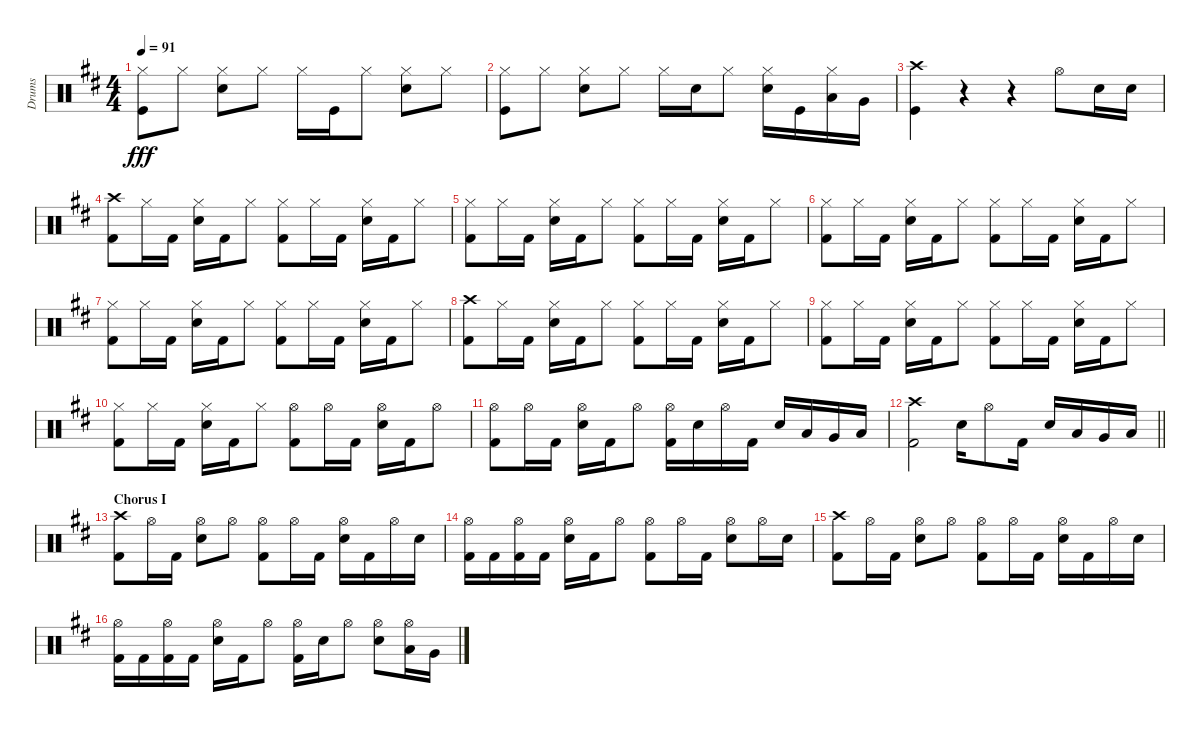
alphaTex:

\track ("Drums" "Drums") {instrument percussion}
\staff {score}
\articulation defaults
\ts (4 4)
\tempo 91
\clef neutral
\ks d
("Hi-Hat (closed)" "Kick (hit)").8{dy fff} "Hi-Hat (closed)".8 ("Hi-Hat (closed)" "Snare (hit) 2").8 "Hi-Hat (closed)".8 "Hi-Hat (closed)".16 "Kick (hit)".16 "Hi-Hat (closed)".8 ("Hi-Hat (closed)" "Snare (hit) 2").8 "Hi-Hat (closed)".8 |
("Hi-Hat (closed)" "Kick (hit)").8 "Hi-Hat (closed)".8 ("Hi-Hat (closed)" "Snare (hit) 2").8 "Hi-Hat (closed)".8 "Hi-Hat (closed)".16 "Snare (hit) 2".16 "Hi-Hat (closed)".8 ("Hi-Hat (closed)" "Snare (hit) 2").16 "Kick (hit)".16 ("Hi-Hat (closed)" "Low Tom (hit)").16 "Very Low Tom (hit)".16 |
("Crash high (hit)" "Kick (hit)").4 r.4 r.4 "Hi-Hat (open)".8 "Snare (hit) 2".16 "Snare (hit) 2".16 |
("Crash high (hit)" "Kick (hit) 2").8 "Hi-Hat (closed)".16 "Kick (hit) 2".16 ("Hi-Hat (closed)" "Snare (hit) 2").16 "Kick (hit) 2".16 "Hi-Hat (closed)".8 ("Hi-Hat (closed)" "Kick (hit) 2").8 "Hi-Hat (closed)".16 "Kick (hit) 2".16 ("Hi-Hat (closed)" "Snare (hit) 2").16 "Kick (hit) 2".16 "Hi-Hat (closed)".8 |
("Hi-Hat (closed)" "Kick (hit) 2").8 "Hi-Hat (closed)".16 "Kick (hit) 2".16 ("Hi-Hat (closed)" "Snare (hit) 2").16 "Kick (hit) 2".16 "Hi-Hat (closed)".8 ("Hi-Hat (closed)" "Kick (hit) 2").8 "Hi-Hat (closed)".16 "Kick (hit) 2".16 ("Hi-Hat (closed)" "Snare (hit) 2").16 "Kick (hit) 2".16 "Hi-Hat (closed)".8 |
("Hi-Hat (closed)" "Kick (hit) 2").8 "Hi-Hat (closed)".16 "Kick (hit) 2".16 ("Hi-Hat (closed)" "Snare (hit) 2").16 "Kick (hit) 2".16 "Hi-Hat (closed)".8 ("Hi-Hat (closed)" "Kick (hit) 2").8 "Hi-Hat (closed)".16 "Kick (hit) 2".16 ("Hi-Hat (closed)" "Snare (hit) 2").16 "Kick (hit) 2".16 "Hi-Hat (closed)".8 |
("Hi-Hat (closed)" "Kick (hit) 2").8 "Hi-Hat (closed)".16 "Kick (hit) 2".16 ("Hi-Hat (closed)" "Snare (hit) 2").16 "Kick (hit) 2".16 "Hi-Hat (closed)".8 ("Hi-Hat (closed)" "Kick (hit) 2").8 "Hi-Hat (closed)".16 "Kick (hit) 2".16 ("Hi-Hat (closed)" "Snare (hit) 2").16 "Kick (hit) 2".16 "Hi-Hat (closed)".8 |
("Crash high (hit)" "Kick (hit) 2").8 "Hi-Hat (closed)".16 "Kick (hit) 2".16 ("Hi-Hat (closed)" "Snare (hit) 2").16 "Kick (hit) 2".16 "Hi-Hat (closed)".8 ("Hi-Hat (closed)" "Kick (hit) 2").8 "Hi-Hat (closed)".16 "Kick (hit) 2".16 ("Hi-Hat (closed)" "Snare (hit) 2").16 "Kick (hit) 2".16 "Hi-Hat (closed)".8 |
("Hi-Hat (closed)" "Kick (hit) 2").8 "Hi-Hat (closed)".16 "Kick (hit) 2".16 ("Hi-Hat (closed)" "Snare (hit) 2").16 "Kick (hit) 2".16 "Hi-Hat (closed)".8 ("Hi-Hat (closed)" "Kick (hit) 2").8 "Hi-Hat (closed)".16 "Kick (hit) 2".16 ("Hi-Hat (closed)" "Snare (hit) 2").16 "Kick (hit) 2".16 "Hi-Hat (closed)".8 |
("Hi-Hat (closed)" "Kick (hit) 2").8 "Hi-Hat (closed)".16 "Kick (hit) 2".16 ("Hi-Hat (closed)" "Snare (hit) 2").16 "Kick (hit) 2".16 "Hi-Hat (closed)".8 ("Hi-Hat (open)" "Kick (hit) 2").8 "Hi-Hat (open)".16 "Kick (hit) 2".16 ("Hi-Hat (open)" "Snare (hit) 2").16 "Kick (hit) 2".16 "Hi-Hat (open)".8 |
("Hi-Hat (open)" "Kick (hit) 2").8 "Hi-Hat (open)".16 "Kick (hit) 2".16 ("Hi-Hat (open)" "Snare (hit) 2").16 "Kick (hit) 2".16 "Hi-Hat (open)".8 ("Hi-Hat (open)" "Kick (hit) 2").16 "Snare (hit) 2".16 "Hi-Hat (open)".16 "Kick (hit) 2".16 "Snare (hit) 2".16 "Low Tom (hit)".16 "Very Low Tom (hit)".16 "Low Floor Tom (hit)".16 |
\barLineRight lightlight
("Crash high (hit)" "Kick (hit) 2").2 "Snare (hit) 2".16 "Hi-Hat (open)".8 "Kick (hit) 2".16 "Snare (hit) 2".16 "Low Tom (hit)".16 "Very Low Tom (hit)".16 "Low Floor Tom (hit)".16 |
\section ("" "Chorus I")
("Crash high (hit)" "Kick (hit) 2").8 "Hi-Hat (open)".16 "Kick (hit) 2".16 ("Hi-Hat (open)" "Snare (hit) 2").8 "Hi-Hat (open)".8 ("Hi-Hat (open)" "Kick (hit) 2").8 "Hi-Hat (open)".16 "Kick (hit) 2".16 ("Hi-Hat (open)" "Snare (hit) 2").16 "Kick (hit) 2".16 "Hi-Hat (open)".16 "Snare (hit) 2".16 |
("Hi-Hat (open)" "Kick (hit) 2").16 "Kick (hit) 2".16 ("Hi-Hat (open)" "Kick (hit) 2").16 "Kick (hit) 2".16 ("Hi-Hat (open)" "Snare (hit) 2").16 "Kick (hit) 2".16 "Hi-Hat (open)".8 ("Hi-Hat (open)" "Kick (hit) 2").8 "Hi-Hat (open)".16 "Kick (hit) 2".16 ("Hi-Hat (open)" "Snare (hit) 2").8 "Hi-Hat (open)".16 "Snare (hit) 2".16 |
("Crash high (hit)" "Kick (hit) 2").8 "Hi-Hat (open)".16 "Kick (hit) 2".16 ("Hi-Hat (open)" "Snare (hit) 2").8 "Hi-Hat (open)".8 ("Hi-Hat (open)" "Kick (hit) 2").8 "Hi-Hat (open)".16 "Kick (hit) 2".16 ("Hi-Hat (open)" "Snare (hit) 2").16 "Kick (hit) 2".16 "Hi-Hat (open)".16 "Snare (hit) 2".16 |
("Hi-Hat (open)" "Kick (hit) 2").16 "Kick (hit) 2".16 ("Hi-Hat (open)" "Kick (hit) 2").16 "Kick (hit) 2".16 ("Hi-Hat (open)" "Snare (hit) 2").16 "Kick (hit) 2".16 "Hi-Hat (open)".8 ("Hi-Hat (open)" "Kick (hit) 2").16 "Snare (hit) 2".16 "Hi-Hat (open)".8 ("Hi-Hat (open)" "Snare (hit) 2").8 ("Hi-Hat (open)" "Low Tom (hit)").16 "Very Low Tom (hit)".16
